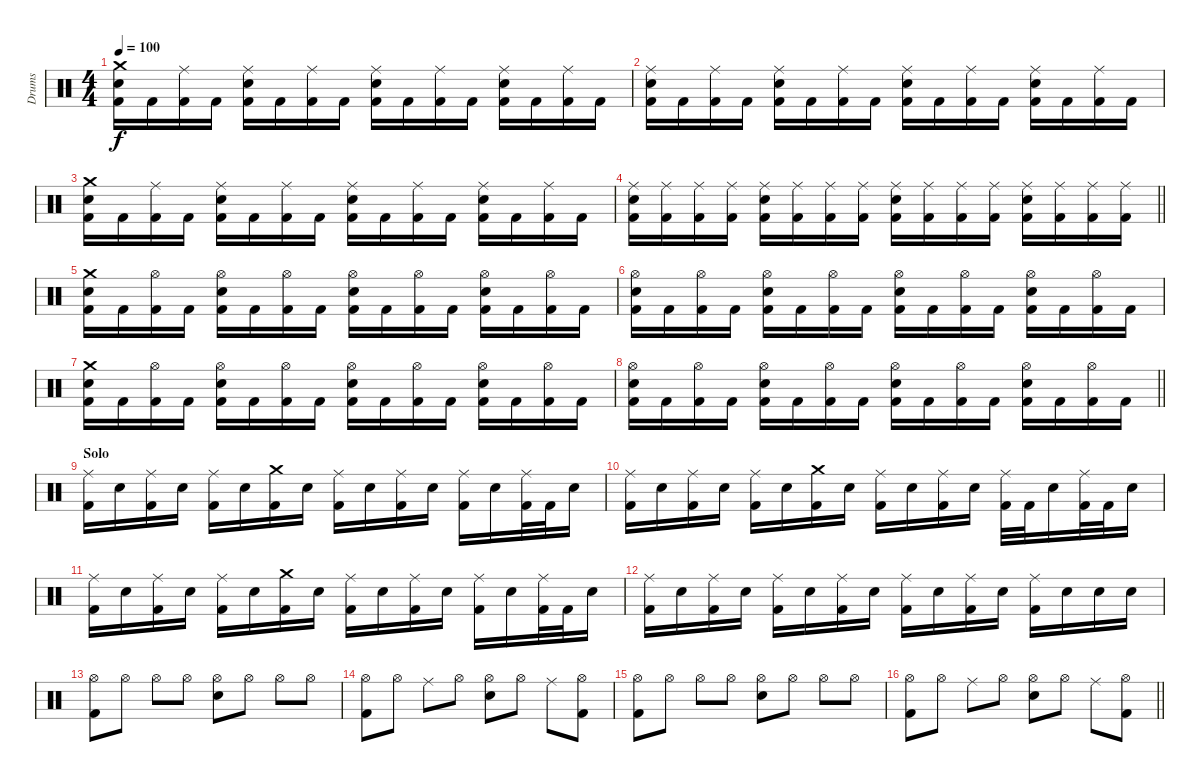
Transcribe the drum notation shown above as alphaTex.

\track ("Drums" "Drums") {instrument percussion}
\staff {score}
\articulation defaults
\ts (4 4)
\tempo 100
\clef neutral
\ks c
("Crash medium (hit)" "Snare (hit) 2" "Kick (hit) 2").16{dy f} "Kick (hit) 2".16 ("Ride (middle)" "Kick (hit) 2").16 "Kick (hit) 2".16 ("Ride (middle)" "Snare (hit) 2" "Kick (hit) 2").16 "Kick (hit) 2".16 ("Ride (middle)" "Kick (hit) 2").16 "Kick (hit) 2".16 ("Ride (middle)" "Snare (hit) 2" "Kick (hit) 2").16 "Kick (hit) 2".16 ("Ride (middle)" "Kick (hit) 2").16 "Kick (hit) 2".16 ("Ride (middle)" "Snare (hit) 2" "Kick (hit) 2").16 "Kick (hit) 2".16 ("Ride (middle)" "Kick (hit) 2").16 "Kick (hit) 2".16 |
("Ride (middle)" "Snare (hit) 2" "Kick (hit) 2").16 "Kick (hit) 2".16 ("Ride (middle)" "Kick (hit) 2").16 "Kick (hit) 2".16 ("Ride (middle)" "Snare (hit) 2" "Kick (hit) 2").16 "Kick (hit) 2".16 ("Ride (middle)" "Kick (hit) 2").16 "Kick (hit) 2".16 ("Ride (middle)" "Snare (hit) 2" "Kick (hit) 2").16 "Kick (hit) 2".16 ("Ride (middle)" "Kick (hit) 2").16 "Kick (hit) 2".16 ("Ride (middle)" "Snare (hit) 2" "Kick (hit) 2").16 "Kick (hit) 2".16 ("Ride (middle)" "Kick (hit) 2").16 "Kick (hit) 2".16 |
("Crash medium (hit)" "Snare (hit) 2" "Kick (hit) 2").16 "Kick (hit) 2".16 ("Ride (middle)" "Kick (hit) 2").16 "Kick (hit) 2".16 ("Ride (middle)" "Snare (hit) 2" "Kick (hit) 2").16 "Kick (hit) 2".16 ("Ride (middle)" "Kick (hit) 2").16 "Kick (hit) 2".16 ("Ride (middle)" "Snare (hit) 2" "Kick (hit) 2").16 "Kick (hit) 2".16 ("Ride (middle)" "Kick (hit) 2").16 "Kick (hit) 2".16 ("Ride (middle)" "Snare (hit) 2" "Kick (hit) 2").16 "Kick (hit) 2".16 ("Ride (middle)" "Kick (hit) 2").16 "Kick (hit) 2".16 |
\barLineRight lightlight
("Ride (middle)" "Snare (hit) 2" "Kick (hit) 2").16 ("Ride (middle)" "Kick (hit) 2").16 ("Ride (middle)" "Kick (hit) 2").16 ("Ride (middle)" "Kick (hit) 2").16 ("Ride (middle)" "Snare (hit) 2" "Kick (hit) 2").16 ("Ride (middle)" "Kick (hit) 2").16 ("Ride (middle)" "Kick (hit) 2").16 ("Ride (middle)" "Kick (hit) 2").16 ("Ride (middle)" "Snare (hit) 2" "Kick (hit) 2").16 ("Ride (middle)" "Kick (hit) 2").16 ("Ride (middle)" "Kick (hit) 2").16 ("Ride (middle)" "Kick (hit) 2").16 ("Ride (middle)" "Snare (hit) 2" "Kick (hit) 2").16 ("Ride (middle)" "Kick (hit) 2").16 ("Ride (middle)" "Kick (hit) 2").16 ("Ride (middle)" "Kick (hit) 2").16 |
("Crash medium (hit)" "Snare (hit) 2" "Kick (hit) 2").16 "Kick (hit) 2".16 ("Hi-Hat (open)" "Kick (hit) 2").16 "Kick (hit) 2".16 ("Hi-Hat (open)" "Snare (hit) 2" "Kick (hit) 2").16 "Kick (hit) 2".16 ("Hi-Hat (open)" "Kick (hit) 2").16 "Kick (hit) 2".16 ("Hi-Hat (open)" "Snare (hit) 2" "Kick (hit) 2").16 "Kick (hit) 2".16 ("Hi-Hat (open)" "Kick (hit) 2").16 "Kick (hit) 2".16 ("Hi-Hat (open)" "Snare (hit) 2" "Kick (hit) 2").16 "Kick (hit) 2".16 ("Hi-Hat (open)" "Kick (hit) 2").16 "Kick (hit) 2".16 |
("Hi-Hat (open)" "Snare (hit) 2" "Kick (hit) 2").16 "Kick (hit) 2".16 ("Hi-Hat (open)" "Kick (hit) 2").16 "Kick (hit) 2".16 ("Hi-Hat (open)" "Snare (hit) 2" "Kick (hit) 2").16 "Kick (hit) 2".16 ("Hi-Hat (open)" "Kick (hit) 2").16 "Kick (hit) 2".16 ("Hi-Hat (open)" "Snare (hit) 2" "Kick (hit) 2").16 "Kick (hit) 2".16 ("Hi-Hat (open)" "Kick (hit) 2").16 "Kick (hit) 2".16 ("Hi-Hat (open)" "Snare (hit) 2" "Kick (hit) 2").16 "Kick (hit) 2".16 ("Hi-Hat (open)" "Kick (hit) 2").16 "Kick (hit) 2".16 |
("Crash medium (hit)" "Snare (hit) 2" "Kick (hit) 2").16 "Kick (hit) 2".16 ("Hi-Hat (open)" "Kick (hit) 2").16 "Kick (hit) 2".16 ("Hi-Hat (open)" "Snare (hit) 2" "Kick (hit) 2").16 "Kick (hit) 2".16 ("Hi-Hat (open)" "Kick (hit) 2").16 "Kick (hit) 2".16 ("Hi-Hat (open)" "Snare (hit) 2" "Kick (hit) 2").16 "Kick (hit) 2".16 ("Hi-Hat (open)" "Kick (hit) 2").16 "Kick (hit) 2".16 ("Hi-Hat (open)" "Snare (hit) 2" "Kick (hit) 2").16 "Kick (hit) 2".16 ("Hi-Hat (open)" "Kick (hit) 2").16 "Kick (hit) 2".16 |
\barLineRight lightlight
("Hi-Hat (open)" "Snare (hit) 2" "Kick (hit) 2").16 "Kick (hit) 2".16 ("Hi-Hat (open)" "Kick (hit) 2").16 "Kick (hit) 2".16 ("Hi-Hat (open)" "Snare (hit) 2" "Kick (hit) 2").16 "Kick (hit) 2".16 ("Hi-Hat (open)" "Kick (hit) 2").16 "Kick (hit) 2".16 ("Hi-Hat (open)" "Snare (hit) 2" "Kick (hit) 2").16 "Kick (hit) 2".16 ("Hi-Hat (open)" "Kick (hit) 2").16 "Kick (hit) 2".16 ("Hi-Hat (open)" "Snare (hit) 2" "Kick (hit) 2").16 "Kick (hit) 2".16 ("Hi-Hat (open)" "Kick (hit) 2").16 "Kick (hit) 2".16 |
\section ("" "Solo")
("Ride (middle)" "Kick (hit) 2").16 "Snare (hit) 2".16 ("Ride (middle)" "Kick (hit) 2").16 "Snare (hit) 2".16 ("Ride (middle)" "Kick (hit) 2").16 "Snare (hit) 2".16 ("Crash medium (hit)" "Kick (hit) 2").16 "Snare (hit) 2".16 ("Ride (middle)" "Kick (hit) 2").16 "Snare (hit) 2".16 ("Ride (middle)" "Kick (hit) 2").16 "Snare (hit) 2".16 ("Ride (middle)" "Kick (hit) 2").16 "Snare (hit) 2".16 ("Ride (middle)" "Kick (hit) 2").32 "Kick (hit) 2".32 "Snare (hit) 2".16 |
("Ride (middle)" "Kick (hit) 2").16 "Snare (hit) 2".16 ("Ride (middle)" "Kick (hit) 2").16 "Snare (hit) 2".16 ("Ride (middle)" "Kick (hit) 2").16 "Snare (hit) 2".16 ("Crash medium (hit)" "Kick (hit) 2").16 "Snare (hit) 2".16 ("Ride (middle)" "Kick (hit) 2").16 "Snare (hit) 2".16 ("Ride (middle)" "Kick (hit) 2").16 "Snare (hit) 2".16 ("Ride (middle)" "Kick (hit) 2").32 "Kick (hit) 2".32 "Snare (hit) 2".16 ("Ride (middle)" "Kick (hit) 2").32 "Kick (hit) 2".32 "Snare (hit) 2".16 |
("Ride (middle)" "Kick (hit) 2").16 "Snare (hit) 2".16 ("Ride (middle)" "Kick (hit) 2").16 "Snare (hit) 2".16 ("Ride (middle)" "Kick (hit) 2").16 "Snare (hit) 2".16 ("Crash medium (hit)" "Kick (hit) 2").16 "Snare (hit) 2".16 ("Ride (middle)" "Kick (hit) 2").16 "Snare (hit) 2".16 ("Ride (middle)" "Kick (hit) 2").16 "Snare (hit) 2".16 ("Ride (middle)" "Kick (hit) 2").16 "Snare (hit) 2".16 ("Ride (middle)" "Kick (hit) 2").32 "Kick (hit) 2".32 "Snare (hit) 2".16 |
("Ride (middle)" "Kick (hit) 2").16 "Snare (hit) 2".16 ("Ride (middle)" "Kick (hit) 2").16 "Snare (hit) 2".16 ("Ride (middle)" "Kick (hit) 2").16 "Snare (hit) 2".16 ("Ride (middle)" "Kick (hit) 2").16 "Snare (hit) 2".16 ("Ride (middle)" "Kick (hit) 2").16 "Snare (hit) 2".16 ("Ride (middle)" "Kick (hit) 2").16 "Snare (hit) 2".16 ("Ride (middle)" "Kick (hit) 2").16 "Snare (hit) 2".16 "Snare (hit) 2".16 "Snare (hit) 2".16 |
("Hi-Hat (open)" "Kick (hit) 2").8 "Hi-Hat (open)".8 "Hi-Hat (open)".8 "Hi-Hat (open)".8 ("Hi-Hat (open)" "Snare (hit) 2").8 "Hi-Hat (open)".8 "Hi-Hat (open)".8 "Hi-Hat (open)".8 |
("Hi-Hat (open)" "Kick (hit) 2").8 "Hi-Hat (open)".8 "Ride (middle)".8 "Hi-Hat (open)".8 ("Hi-Hat (open)" "Snare (hit) 2").8 "Hi-Hat (open)".8 "Ride (middle)".8 ("Hi-Hat (open)" "Kick (hit) 2").8 |
("Hi-Hat (open)" "Kick (hit) 2").8 "Hi-Hat (open)".8 "Hi-Hat (open)".8 "Hi-Hat (open)".8 ("Hi-Hat (open)" "Snare (hit) 2").8 "Hi-Hat (open)".8 "Hi-Hat (open)".8 "Hi-Hat (open)".8 |
\barLineRight lightlight
("Hi-Hat (open)" "Kick (hit) 2").8 "Hi-Hat (open)".8 "Ride (middle)".8 "Hi-Hat (open)".8 ("Hi-Hat (open)" "Snare (hit) 2").8 "Hi-Hat (open)".8 "Ride (middle)".8 ("Hi-Hat (open)" "Kick (hit) 2").8
